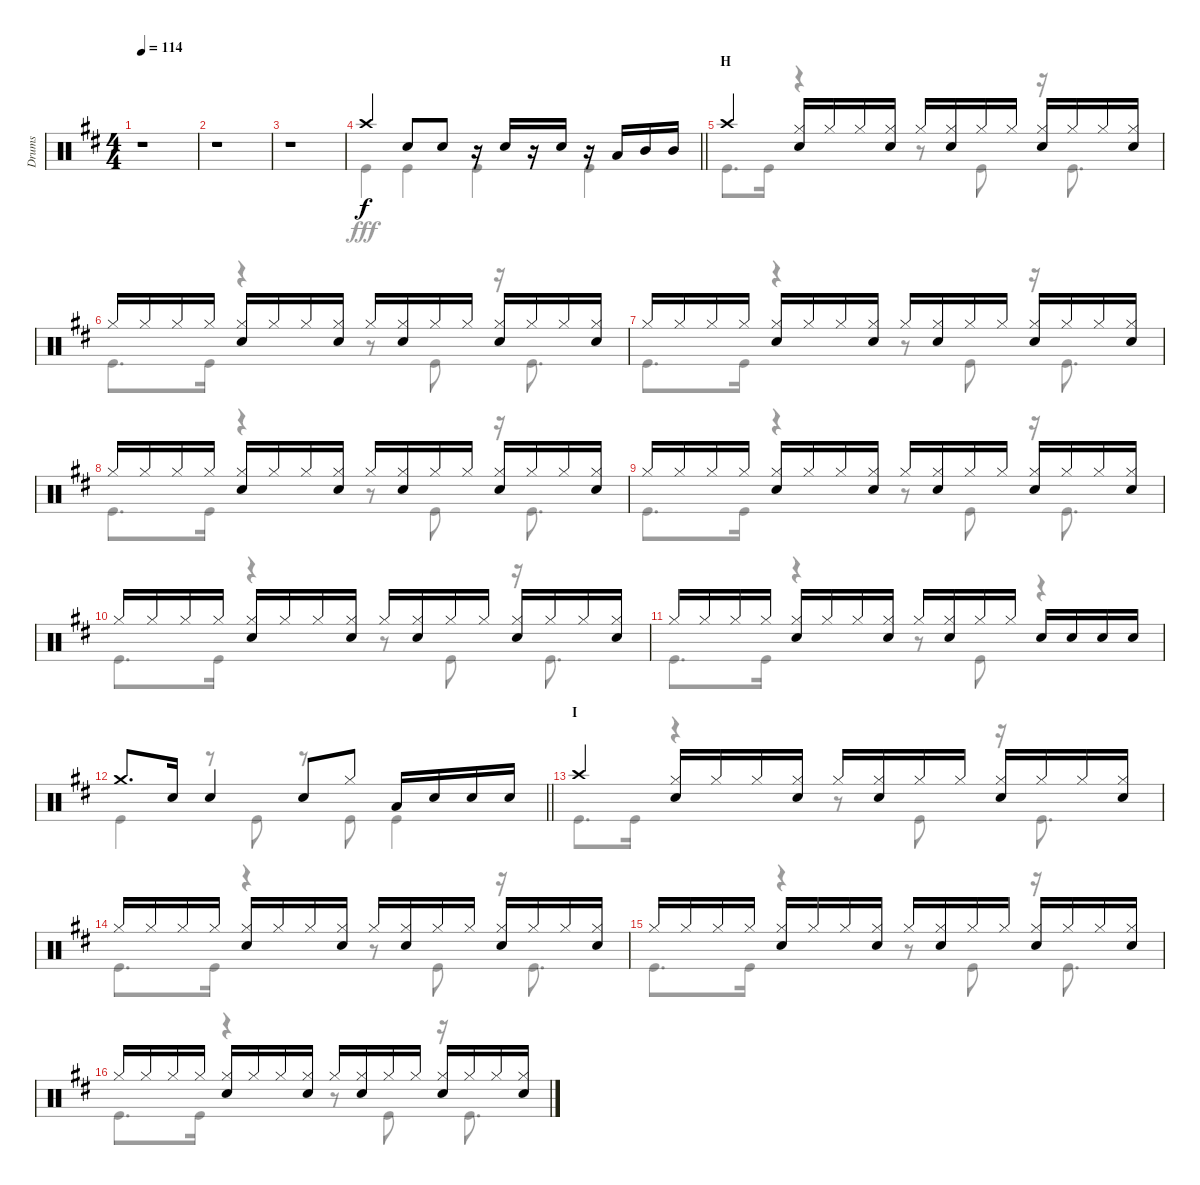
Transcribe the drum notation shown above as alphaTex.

\track ("Drums" "Drums") {instrument percussion}
\staff {score}
\articulation defaults
\voice
\ts (4 4)
\tempo 114
\clef neutral
\ks d
r.1{dy f} |
r.1 |
r.1 |
\barLineRight lightlight "Crash high (hit)".4 "Snare (hit) 2".8 "Snare (hit) 2".8
r.16 "Snare (hit) 2".16 r.16 "Snare (hit) 2".16 r.16 "Low Tom (hit)".16 "Mid Tom (hit)".16 "Mid Tom (hit)".16 |
\section ("" "H")
"Crash high (hit)".4 ("Hi-Hat (closed)" "Snare (hit) 2").16 "Hi-Hat (closed)".16 "Hi-Hat (closed)".16 ("Hi-Hat (closed)" "Snare (hit) 2").16 "Hi-Hat (closed)".16 ("Hi-Hat (closed)" "Snare (hit) 2").16 "Hi-Hat (closed)".16 "Hi-Hat (closed)".16 ("Hi-Hat (closed)" "Snare (hit) 2").16 "Hi-Hat (closed)".16 "Hi-Hat (closed)".16 ("Hi-Hat (closed)" "Snare (hit) 2").16 |
"Hi-Hat (closed)".16 "Hi-Hat (closed)".16 "Hi-Hat (closed)".16 "Hi-Hat (closed)".16 ("Hi-Hat (closed)" "Snare (hit) 2").16 "Hi-Hat (closed)".16 "Hi-Hat (closed)".16 ("Hi-Hat (closed)" "Snare (hit) 2").16 "Hi-Hat (closed)".16 ("Hi-Hat (closed)" "Snare (hit) 2").16 "Hi-Hat (closed)".16 "Hi-Hat (closed)".16 ("Hi-Hat (closed)" "Snare (hit) 2").16 "Hi-Hat (closed)".16 "Hi-Hat (closed)".16 ("Hi-Hat (closed)" "Snare (hit) 2").16 |
"Hi-Hat (closed)".16 "Hi-Hat (closed)".16 "Hi-Hat (closed)".16 "Hi-Hat (closed)".16 ("Hi-Hat (closed)" "Snare (hit) 2").16 "Hi-Hat (closed)".16 "Hi-Hat (closed)".16 ("Hi-Hat (closed)" "Snare (hit) 2").16 "Hi-Hat (closed)".16 ("Hi-Hat (closed)" "Snare (hit) 2").16 "Hi-Hat (closed)".16 "Hi-Hat (closed)".16 ("Hi-Hat (closed)" "Snare (hit) 2").16 "Hi-Hat (closed)".16 "Hi-Hat (closed)".16 ("Hi-Hat (closed)" "Snare (hit) 2").16 |
"Hi-Hat (closed)".16 "Hi-Hat (closed)".16 "Hi-Hat (closed)".16 "Hi-Hat (closed)".16 ("Hi-Hat (closed)" "Snare (hit) 2").16 "Hi-Hat (closed)".16 "Hi-Hat (closed)".16 ("Hi-Hat (closed)" "Snare (hit) 2").16 "Hi-Hat (closed)".16 ("Hi-Hat (closed)" "Snare (hit) 2").16 "Hi-Hat (closed)".16 "Hi-Hat (closed)".16 ("Hi-Hat (closed)" "Snare (hit) 2").16 "Hi-Hat (closed)".16 "Hi-Hat (closed)".16 ("Hi-Hat (closed)" "Snare (hit) 2").16 |
"Hi-Hat (closed)".16 "Hi-Hat (closed)".16 "Hi-Hat (closed)".16 "Hi-Hat (closed)".16 ("Hi-Hat (closed)" "Snare (hit) 2").16 "Hi-Hat (closed)".16 "Hi-Hat (closed)".16 ("Hi-Hat (closed)" "Snare (hit) 2").16 "Hi-Hat (closed)".16 ("Hi-Hat (closed)" "Snare (hit) 2").16 "Hi-Hat (closed)".16 "Hi-Hat (closed)".16 ("Hi-Hat (closed)" "Snare (hit) 2").16 "Hi-Hat (closed)".16 "Hi-Hat (closed)".16 ("Hi-Hat (closed)" "Snare (hit) 2").16 |
"Hi-Hat (closed)".16 "Hi-Hat (closed)".16 "Hi-Hat (closed)".16 "Hi-Hat (closed)".16 ("Hi-Hat (closed)" "Snare (hit) 2").16 "Hi-Hat (closed)".16 "Hi-Hat (closed)".16 ("Hi-Hat (closed)" "Snare (hit) 2").16 "Hi-Hat (closed)".16 ("Hi-Hat (closed)" "Snare (hit) 2").16 "Hi-Hat (closed)".16 "Hi-Hat (closed)".16 ("Hi-Hat (closed)" "Snare (hit) 2").16 "Hi-Hat (closed)".16 "Hi-Hat (closed)".16 ("Hi-Hat (closed)" "Snare (hit) 2").16 |
"Hi-Hat (closed)".16 "Hi-Hat (closed)".16 "Hi-Hat (closed)".16 "Hi-Hat (closed)".16 ("Hi-Hat (closed)" "Snare (hit) 2").16 "Hi-Hat (closed)".16 "Hi-Hat (closed)".16 ("Hi-Hat (closed)" "Snare (hit) 2").16 "Hi-Hat (closed)".16 ("Hi-Hat (closed)" "Snare (hit) 2").16 "Hi-Hat (closed)".16 "Hi-Hat (closed)".16 "Snare (hit) 2".16 "Snare (hit) 2".16 "Snare (hit) 2".16 "Snare (hit) 2".16 |
\barLineRight lightlight "Crash medium (hit)".8{d} "Snare (hit) 2".16 "Snare (hit) 2".4 "Snare (hit) 2".8 "Hi-Hat (closed)".8 "Low Tom (hit)".16 "Snare (hit) 2".16 "Snare (hit) 2".16 "Snare (hit) 2".16
|
\section ("" "I")
"Crash high (hit)".4 ("Hi-Hat (closed)" "Snare (hit) 2").16 "Hi-Hat (closed)".16 "Hi-Hat (closed)".16 ("Hi-Hat (closed)" "Snare (hit) 2").16 "Hi-Hat (closed)".16 ("Hi-Hat (closed)" "Snare (hit) 2").16 "Hi-Hat (closed)".16 "Hi-Hat (closed)".16 ("Hi-Hat (closed)" "Snare (hit) 2").16 "Hi-Hat (closed)".16 "Hi-Hat (closed)".16 ("Hi-Hat (closed)" "Snare (hit) 2").16 |
"Hi-Hat (closed)".16 "Hi-Hat (closed)".16 "Hi-Hat (closed)".16 "Hi-Hat (closed)".16 ("Hi-Hat (closed)" "Snare (hit) 2").16 "Hi-Hat (closed)".16 "Hi-Hat (closed)".16 ("Hi-Hat (closed)" "Snare (hit) 2").16 "Hi-Hat (closed)".16 ("Hi-Hat (closed)" "Snare (hit) 2").16 "Hi-Hat (closed)".16 "Hi-Hat (closed)".16 ("Hi-Hat (closed)" "Snare (hit) 2").16 "Hi-Hat (closed)".16 "Hi-Hat (closed)".16 ("Hi-Hat (closed)" "Snare (hit) 2").16 |
"Hi-Hat (closed)".16 "Hi-Hat (closed)".16 "Hi-Hat (closed)".16 "Hi-Hat (closed)".16 ("Hi-Hat (closed)" "Snare (hit) 2").16 "Hi-Hat (closed)".16 "Hi-Hat (closed)".16 ("Hi-Hat (closed)" "Snare (hit) 2").16 "Hi-Hat (closed)".16 ("Hi-Hat (closed)" "Snare (hit) 2").16 "Hi-Hat (closed)".16 "Hi-Hat (closed)".16 ("Hi-Hat (closed)" "Snare (hit) 2").16 "Hi-Hat (closed)".16 "Hi-Hat (closed)".16 ("Hi-Hat (closed)" "Snare (hit) 2").16 |
"Hi-Hat (closed)".16 "Hi-Hat (closed)".16 "Hi-Hat (closed)".16 "Hi-Hat (closed)".16 ("Hi-Hat (closed)" "Snare (hit) 2").16 "Hi-Hat (closed)".16 "Hi-Hat (closed)".16 ("Hi-Hat (closed)" "Snare (hit) 2").16 "Hi-Hat (closed)".16 ("Hi-Hat (closed)" "Snare (hit) 2").16 "Hi-Hat (closed)".16 "Hi-Hat (closed)".16 ("Hi-Hat (closed)" "Snare (hit) 2").16 "Hi-Hat (closed)".16 "Hi-Hat (closed)".16 ("Hi-Hat (closed)" "Snare (hit) 2").16
\voice
\clef neutral
\ottava regular
\simile none
\ks d
r.1{dy fff} |
r.1 |
r.1 |
\barLineRight lightlight "Kick (hit)".4 "Kick (hit)".4 "Kick (hit)".4 "Kick (hit)".4
|
"Kick (hit)".8{d} "Kick (hit)".16 r.4 r.8 "Kick (hit)".8 r.16 "Kick (hit)".8{d} |
"Kick (hit)".8{d} "Kick (hit)".16 r.4 r.8 "Kick (hit)".8 r.16 "Kick (hit)".8{d} |
"Kick (hit)".8{d} "Kick (hit)".16 r.4 r.8 "Kick (hit)".8 r.16 "Kick (hit)".8{d} |
"Kick (hit)".8{d} "Kick (hit)".16 r.4 r.8 "Kick (hit)".8 r.16 "Kick (hit)".8{d} |
"Kick (hit)".8{d} "Kick (hit)".16 r.4 r.8 "Kick (hit)".8 r.16 "Kick (hit)".8{d} |
"Kick (hit)".8{d} "Kick (hit)".16 r.4 r.8 "Kick (hit)".8 r.16 "Kick (hit)".8{d} |
"Kick (hit)".8{d} "Kick (hit)".16 r.4 r.8 "Kick (hit)".8 r.4 |
\barLineRight lightlight "Kick (hit)".4
r.8 "Kick (hit)".8 r.8 "Kick (hit)".8 "Kick (hit)".4 |
"Kick (hit)".8{d} "Kick (hit)".16 r.4 r.8 "Kick (hit)".8 r.16 "Kick (hit)".8{d} |
"Kick (hit)".8{d} "Kick (hit)".16 r.4 r.8 "Kick (hit)".8 r.16 "Kick (hit)".8{d} |
"Kick (hit)".8{d} "Kick (hit)".16 r.4 r.8 "Kick (hit)".8 r.16 "Kick (hit)".8{d} |
"Kick (hit)".8{d} "Kick (hit)".16 r.4 r.8 "Kick (hit)".8 r.16 "Kick (hit)".8{d}
